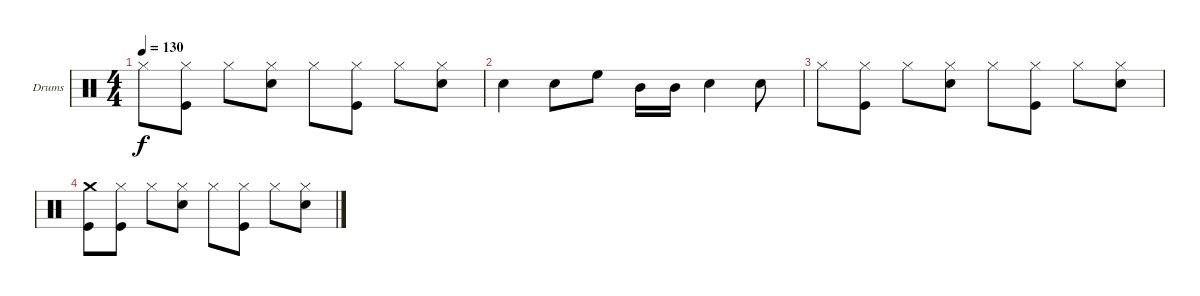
\bracketExtendMode groupsimilarinstruments
\firstSystemTrackNameOrientation horizontal
\otherSystemsTrackNameOrientation horizontal
\track ("Drumkit" "Drums") {instrument percussion}
\staff {score}
\articulation defaults
\ts (4 4)
\tempo 130
\clef neutral
\ks c "Hi-Hat (closed)".8{dy f}
("Hi-Hat (closed)" "Kick (hit)").8 "Hi-Hat (closed)".8 ("Hi-Hat (closed)" "Snare (hit) 2").8 "Hi-Hat (closed)".8 ("Hi-Hat (closed)" "Kick (hit)").8 "Hi-Hat (closed)".8 ("Hi-Hat (closed)" "Snare (hit) 2").8 |
"Snare (hit) 2".4 "Snare (hit) 2".8 "High Floor Tom (hit)".8 "Mid Tom (hit)".16 "Mid Tom (hit)".16 "Snare (hit) 2".4 "Snare (hit) 2".8 |
"Hi-Hat (closed)".8 ("Hi-Hat (closed)" "Kick (hit)").8 "Hi-Hat (closed)".8 ("Hi-Hat (closed)" "Snare (hit) 2").8 "Hi-Hat (closed)".8 ("Hi-Hat (closed)" "Kick (hit)").8 "Hi-Hat (closed)".8 ("Hi-Hat (closed)" "Snare (hit) 2").8 |
("Crash medium (hit)" "Kick (hit)").8 ("Hi-Hat (closed)" "Kick (hit)").8 "Hi-Hat (closed)".8 ("Hi-Hat (closed)" "Snare (hit) 2").8 "Hi-Hat (closed)".8 ("Hi-Hat (closed)" "Kick (hit)").8 "Hi-Hat (closed)".8 ("Hi-Hat (closed)" "Snare (hit) 2").8
